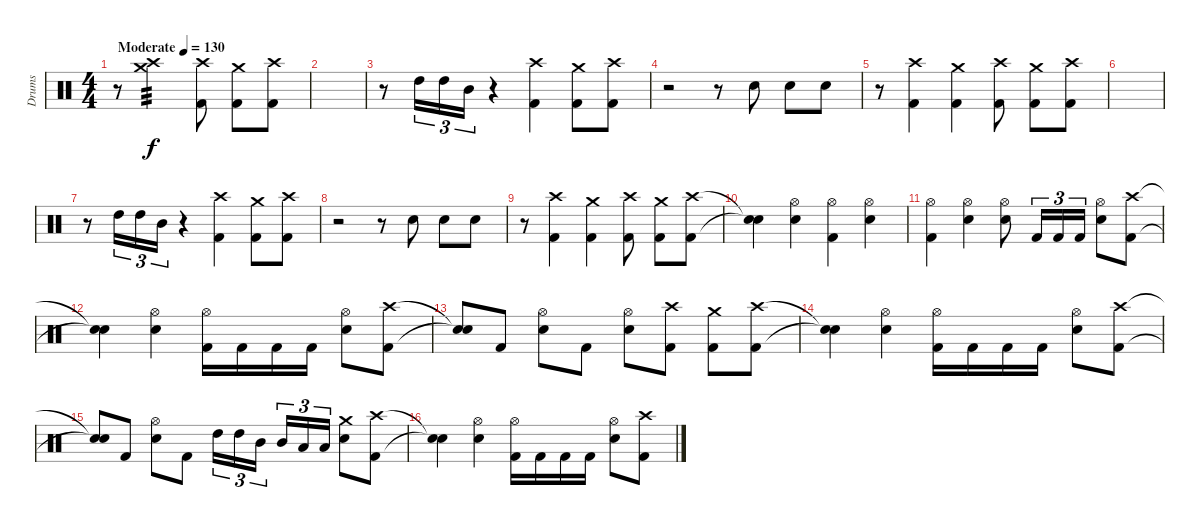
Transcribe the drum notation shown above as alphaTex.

\track ("Drums" "Drums") {instrument percussion}
\staff {score}
\articulation defaults
\ts (4 4)
\tempo (130 "Moderate")
\clef neutral
\ks c
r.8{dy f volume 0} ("Crash medium (hit)" "Crash high (hit)").2{tp 3 volume 13} ("Crash high (hit)" "Kick (hit) 2").8 ("Crash medium (hit)" "Kick (hit) 2").8 ("Crash high (hit)" "Kick (hit) 2").8 |
|
r.8 "High Tom (hit)".16{tu (3 2)} "High Tom (hit)".16{tu (3 2)} "Mid Tom (hit)".16{tu (3 2)} r.4 ("Kick (hit) 2" "Crash high (hit)").4 ("Kick (hit) 2" "Crash medium (hit)").8 ("Kick (hit) 2" "Crash high (hit)").8 |
r.2 r.8 "Snare (hit) 2".8 "Snare (hit) 2".8 "Snare (hit) 2".8 |
r.8 ("Kick (hit) 2" "Crash high (hit)").4 ("Kick (hit) 2" "Crash medium (hit)").4 ("Crash high (hit)" "Kick (hit) 2").8 ("Crash medium (hit)" "Kick (hit) 2").8 ("Crash high (hit)" "Kick (hit) 2").8 |
|
r.8 "High Tom (hit)".16{tu (3 2)} "High Tom (hit)".16{tu (3 2)} "Mid Tom (hit)".16{tu (3 2)} r.4 ("Kick (hit) 2" "Crash high (hit)").4 ("Kick (hit) 2" "Crash medium (hit)").8 ("Kick (hit) 2" "Crash high (hit)").8 |
r.2 r.8 "Snare (hit) 2".8 "Snare (hit) 2".8 "Snare (hit) 2".8 |
r.8 ("Kick (hit) 2" "Crash high (hit)").4 ("Kick (hit) 2" "Crash medium (hit)").4 ("Crash high (hit)" "Kick (hit) 2").8 ("Crash medium (hit)" "Kick (hit) 2").8 ("Crash high (hit)" "Kick (hit) 2").8 |
("Snare (hit)"{t} "Snare (hit)"{t}).4 ("Snare (hit) 2" "Hi-Hat (open)").4 ("Kick (hit) 2" "Hi-Hat (open)").4 ("Snare (hit) 2" "Hi-Hat (open)").4 |
("Kick (hit) 2" "Hi-Hat (open)").4 ("Snare (hit) 2" "Hi-Hat (open)").4 ("Snare (hit) 2" "Hi-Hat (open)").8 "Kick (hit) 2".16{tu (3 2)} "Kick (hit) 2".16{tu (3 2)} "Kick (hit) 2".16{tu (3 2)} ("Snare (hit) 2" "Hi-Hat (open)").8 ("Kick (hit) 2" "Crash high (hit)").8 |
("Snare (hit)"{t} "Snare (hit)"{t}).4 ("Snare (hit) 2" "Hi-Hat (open)").4 ("Kick (hit) 2" "Hi-Hat (open)").16 "Kick (hit) 2".16 "Kick (hit) 2".16 "Kick (hit) 2".16 ("Snare (hit) 2" "Hi-Hat (open)").8 ("Kick (hit) 2" "Crash high (hit)").8 |
("Snare (hit)"{t} "Snare (hit)"{t}).8 "Kick (hit) 2".8 ("Snare (hit) 2" "Hi-Hat (open)").8 "Kick (hit) 2".8 ("Snare (hit) 2" "Hi-Hat (open)").8 ("Crash high (hit)" "Kick (hit) 2").8 ("Crash medium (hit)" "Kick (hit) 2").8 ("Crash high (hit)" "Kick (hit) 2").8 |
("Snare (hit)"{t} "Snare (hit)"{t}).4 ("Snare (hit) 2" "Hi-Hat (open)").4 ("Kick (hit) 2" "Hi-Hat (open)").16 "Kick (hit) 2".16 "Kick (hit) 2".16 "Kick (hit) 2".16 ("Snare (hit) 2" "Hi-Hat (open)").8 ("Kick (hit) 2" "Crash high (hit)").8 |
("Snare (hit)"{t} "Snare (hit)"{t}).8 "Kick (hit) 2".8 ("Snare (hit) 2" "Hi-Hat (open)").8 "Kick (hit) 2".8 "High Tom (hit)".16{tu (3 2)} "High Tom (hit)".16{tu (3 2)} "Mid Tom (hit)".16{tu (3 2) beam splitsecondary} "Mid Tom (hit)".16{tu (3 2)} "Low Tom (hit)".16{tu (3 2)} "Low Tom (hit)".16{tu (3 2)} ("Snare (hit) 2" "Crash medium (hit)").8 ("Kick (hit) 2" "Crash high (hit)").8 |
("Snare (hit)"{t} "Snare (hit)"{t}).4 ("Snare (hit) 2" "Hi-Hat (open)").4 ("Kick (hit) 2" "Hi-Hat (open)").16 "Kick (hit) 2".16 "Kick (hit) 2".16 "Kick (hit) 2".16 ("Snare (hit) 2" "Hi-Hat (open)").8 ("Kick (hit) 2" "Crash high (hit)").8
